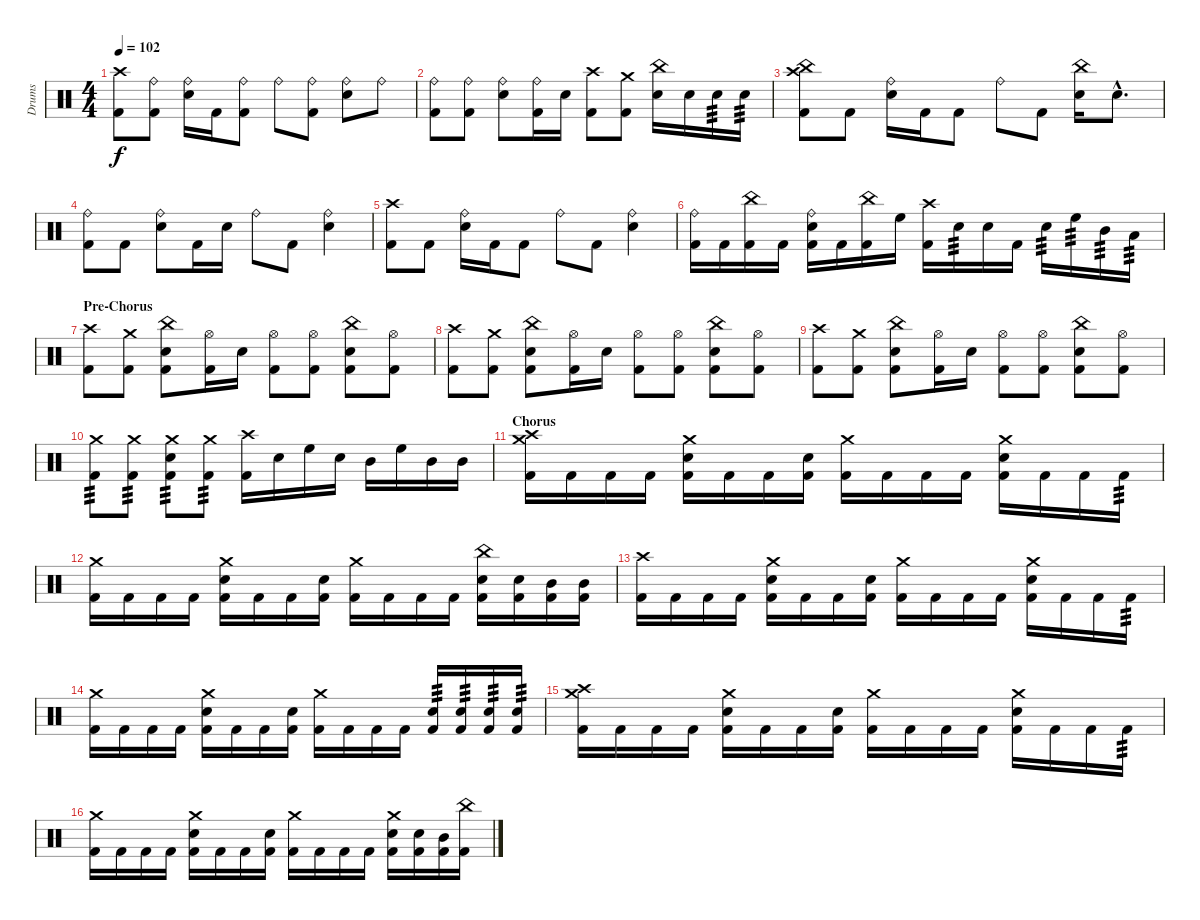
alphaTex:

\track ("Drums" "Drums") {instrument percussion}
\staff {score}
\articulation defaults
\ts (4 4)
\tempo 102
\clef neutral
\ks c
("Crash high (hit)" "Kick (hit) 2").8{dy f} ("Ride (bell)" "Kick (hit) 2").8 ("Ride (bell)" "Snare (hit) 2").16 "Kick (hit) 2".16 ("Ride (bell)" "Kick (hit) 2").8 "Ride (bell)".8 ("Ride (bell)" "Kick (hit) 2").8 ("Ride (bell)" "Snare (hit) 2").8 "Ride (bell)".8 |
("Ride (bell)" "Kick (hit) 2").8 ("Ride (bell)" "Kick (hit) 2").8 ("Ride (bell)" "Snare (hit) 2").8 ("Ride (bell)" "Kick (hit) 2").16 "Snare (hit) 2".16 ("Crash high (hit)" "Kick (hit) 2").8 ("Crash medium (hit)" "Kick (hit) 2").8 ("China (hit)" "Snare (hit) 2").16 "Snare (hit) 2".16 "Snare (hit) 2".16{tp 3} "Snare (hit) 2".16{tp 3} |
("Crash high (hit)" "China (hit)" "Kick (hit) 2").8 "Kick (hit) 2".8 ("Ride (bell)" "Snare (hit) 2").16 "Kick (hit) 2".16 "Kick (hit) 2".8 "Ride (bell)".8 "Kick (hit) 2".8 ("China (hit)" "Snare (hit) 2").16 "Snare (hit) 2"{hac}.8{d} |
("Ride (bell)" "Kick (hit) 2").8 "Kick (hit) 2".8 ("Ride (bell)" "Snare (hit) 2").8 "Kick (hit) 2".16 "Snare (hit) 2".16 "Ride (bell)".8 "Kick (hit) 2".8 ("Ride (bell)" "Snare (hit) 2").4 |
("Crash high (hit)" "Kick (hit) 2").8 "Kick (hit) 2".8 ("Ride (bell)" "Snare (hit) 2").16 "Kick (hit) 2".16 "Kick (hit) 2".8 "Ride (bell)".8 "Kick (hit) 2".8 ("Ride (bell)" "Snare (hit) 2").4 |
("Ride (bell)" "Kick (hit) 2").16 "Kick (hit) 2".16 ("China (hit)" "Kick (hit) 2").16 "Kick (hit) 2".16 ("Ride (bell)" "Snare (hit) 2" "Kick (hit) 2").16 "Kick (hit) 2".16 ("China (hit)" "Kick (hit) 2").16 "High Floor Tom (hit)".16 ("Crash high (hit)" "Kick (hit) 2").16 "Snare (hit) 2".16{tp 3} "Snare (hit) 2".16 "Kick (hit) 2".16 "Snare (hit) 2".16{tp 3} "High Floor Tom (hit)".16{tp 3} "Mid Tom (hit)".16{tp 3} "Low Tom (hit)".16{tp 3} |
\section ("" "Pre-Chorus")
("Crash high (hit)" "Kick (hit) 2").8 ("Crash medium (hit)" "Kick (hit) 2").8 ("China (hit)" "Snare (hit) 2" "Kick (hit) 2").8 ("Hi-Hat (open)" "Kick (hit) 2").16 "Snare (hit) 2".16 ("Hi-Hat (open)" "Kick (hit) 2").8 ("Hi-Hat (open)" "Kick (hit) 2").8 ("China (hit)" "Snare (hit) 2" "Kick (hit) 2").8 ("Hi-Hat (open)" "Kick (hit) 2").8 |
("Crash high (hit)" "Kick (hit) 2").8 ("Crash medium (hit)" "Kick (hit) 2").8 ("China (hit)" "Snare (hit) 2" "Kick (hit) 2").8 ("Hi-Hat (open)" "Kick (hit) 2").16 "Snare (hit) 2".16 ("Hi-Hat (open)" "Kick (hit) 2").8 ("Hi-Hat (open)" "Kick (hit) 2").8 ("China (hit)" "Snare (hit) 2" "Kick (hit) 2").8 ("Hi-Hat (open)" "Kick (hit) 2").8 |
("Crash high (hit)" "Kick (hit) 2").8 ("Crash medium (hit)" "Kick (hit) 2").8 ("China (hit)" "Snare (hit) 2" "Kick (hit) 2").8 ("Hi-Hat (open)" "Kick (hit) 2").16 "Snare (hit) 2".16 ("Hi-Hat (open)" "Kick (hit) 2").8 ("Hi-Hat (open)" "Kick (hit) 2").8 ("China (hit)" "Snare (hit) 2" "Kick (hit) 2").8 ("Hi-Hat (open)" "Kick (hit) 2").8 |
("Crash medium (hit)" "Kick (hit) 2").8{tp 3} ("Crash medium (hit)" "Kick (hit) 2").8{tp 3} ("Crash medium (hit)" "Snare (hit) 2" "Kick (hit) 2").8{tp 3} ("Crash medium (hit)" "Kick (hit) 2").8{tp 3} ("Crash high (hit)" "Kick (hit) 2").16 "Snare (hit) 2".16 "High Floor Tom (hit)".16 "Snare (hit) 2".16 "Mid Tom (hit)".16 "High Floor Tom (hit)".16 "Mid Tom (hit)".16 "Mid Tom (hit)".16 |
\section ("" "Chorus")
("Crash high (hit)" "Crash medium (hit)" "Kick (hit) 2").16 "Kick (hit) 2".16 "Kick (hit) 2".16 "Kick (hit) 2".16 ("Crash medium (hit)" "Snare (hit) 2" "Kick (hit) 2").16 "Kick (hit) 2".16 "Kick (hit) 2".16 ("Snare (hit) 2" "Kick (hit) 2").16 ("Crash medium (hit)" "Kick (hit) 2").16 "Kick (hit) 2".16 "Kick (hit) 2".16 "Kick (hit) 2".16 ("Crash medium (hit)" "Snare (hit) 2" "Kick (hit) 2").16 "Kick (hit) 2".16 "Kick (hit) 2".16 "Kick (hit) 2".16{tp 3} |
("Crash medium (hit)" "Kick (hit) 2").16 "Kick (hit) 2".16 "Kick (hit) 2".16 "Kick (hit) 2".16 ("Crash medium (hit)" "Snare (hit) 2" "Kick (hit) 2").16 "Kick (hit) 2".16 "Kick (hit) 2".16 ("Snare (hit) 2" "Kick (hit) 2").16 ("Crash medium (hit)" "Kick (hit) 2").16 "Kick (hit) 2".16 "Kick (hit) 2".16 "Kick (hit) 2".16 ("China (hit)" "Snare (hit) 2" "Kick (hit) 2").16 ("Snare (hit) 2" "Kick (hit) 2").16 ("Mid Tom (hit)" "Kick (hit) 2").16 ("Mid Tom (hit)" "Kick (hit) 2").16 |
("Crash high (hit)" "Kick (hit) 2").16 "Kick (hit) 2".16 "Kick (hit) 2".16 "Kick (hit) 2".16 ("Crash medium (hit)" "Snare (hit) 2" "Kick (hit) 2").16 "Kick (hit) 2".16 "Kick (hit) 2".16 ("Snare (hit) 2" "Kick (hit) 2").16 ("Crash medium (hit)" "Kick (hit) 2").16 "Kick (hit) 2".16 "Kick (hit) 2".16 "Kick (hit) 2".16 ("Crash medium (hit)" "Snare (hit) 2" "Kick (hit) 2").16 "Kick (hit) 2".16 "Kick (hit) 2".16 "Kick (hit) 2".16{tp 3} |
("Crash medium (hit)" "Kick (hit) 2").16 "Kick (hit) 2".16 "Kick (hit) 2".16 "Kick (hit) 2".16 ("Crash medium (hit)" "Snare (hit) 2" "Kick (hit) 2").16 "Kick (hit) 2".16 "Kick (hit) 2".16 ("Snare (hit) 2" "Kick (hit) 2").16 ("Crash medium (hit)" "Kick (hit) 2").16 "Kick (hit) 2".16 "Kick (hit) 2".16 "Kick (hit) 2".16 ("Snare (hit) 2" "Kick (hit) 2").16{tp 3} ("Snare (hit) 2" "Kick (hit) 2").16{tp 3} ("Snare (hit) 2" "Kick (hit) 2").16{tp 3} ("Snare (hit) 2" "Kick (hit) 2").16{tp 3} |
("Crash high (hit)" "Crash medium (hit)" "Kick (hit) 2").16 "Kick (hit) 2".16 "Kick (hit) 2".16 "Kick (hit) 2".16 ("Crash medium (hit)" "Snare (hit) 2" "Kick (hit) 2").16 "Kick (hit) 2".16 "Kick (hit) 2".16 ("Snare (hit) 2" "Kick (hit) 2").16 ("Crash medium (hit)" "Kick (hit) 2").16 "Kick (hit) 2".16 "Kick (hit) 2".16 "Kick (hit) 2".16 ("Crash medium (hit)" "Snare (hit) 2" "Kick (hit) 2").16 "Kick (hit) 2".16 "Kick (hit) 2".16 "Kick (hit) 2".16{tp 3} |
("Crash medium (hit)" "Kick (hit) 2").16 "Kick (hit) 2".16 "Kick (hit) 2".16 "Kick (hit) 2".16 ("Crash medium (hit)" "Snare (hit) 2" "Kick (hit) 2").16 "Kick (hit) 2".16 "Kick (hit) 2".16 ("Snare (hit) 2" "Kick (hit) 2").16 ("Crash medium (hit)" "Kick (hit) 2").16 "Kick (hit) 2".16 "Kick (hit) 2".16 "Kick (hit) 2".16 ("Crash medium (hit)" "Snare (hit) 2" "Kick (hit) 2").16 ("Snare (hit) 2" "Kick (hit) 2").16 ("Mid Tom (hit)" "Kick (hit) 2").16 ("China (hit)" "Kick (hit) 2").16
